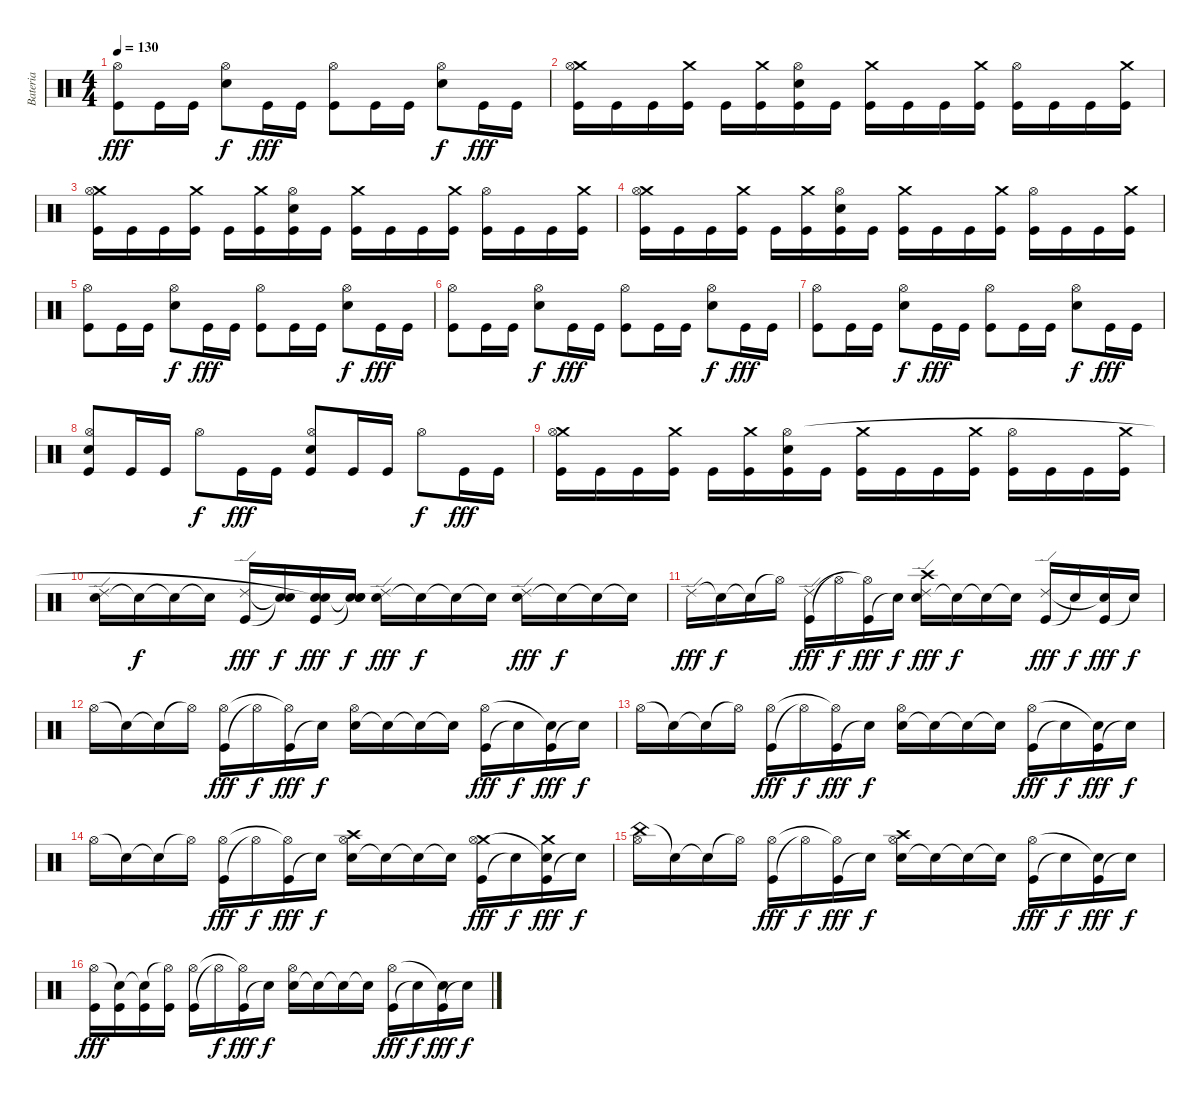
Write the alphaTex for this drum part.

\track ("Bateria" "Bateria") {instrument percussion}
\staff {score}
\articulation defaults
\ts (4 4)
\tempo 130
\clef neutral
\ks c
("Kick (hit)" "Hi-Hat (open)").8{dy fff} "Kick (hit)".16 "Kick (hit)".16 ("Electric Snare (hit)" "Hi-Hat (open)").8{dy f} "Kick (hit)".16{dy fff} "Kick (hit)".16 ("Kick (hit)" "Hi-Hat (open)").8 "Kick (hit)".16 "Kick (hit)".16 ("Electric Snare (hit)" "Hi-Hat (open)").8{dy f} "Kick (hit)".16{dy fff} "Kick (hit)".16 |
("Kick (hit)" "Crash medium (hit)" "Hi-Hat (open)").16 "Kick (hit)".16 "Kick (hit)".16 ("Kick (hit)" "Crash medium (hit)").16 "Kick (hit)".16 ("Kick (hit)" "Crash medium (hit)").16 ("Kick (hit)" "Electric Snare (hit)" "Hi-Hat (open)").16 "Kick (hit)".16 ("Kick (hit)" "Crash medium (hit)").16 "Kick (hit)".16 "Kick (hit)".16 ("Kick (hit)" "Crash medium (hit)").16 ("Kick (hit)" "Hi-Hat (open)").16 "Kick (hit)".16 "Kick (hit)".16 ("Kick (hit)" "Crash medium (hit)").16 |
("Kick (hit)" "Crash medium (hit)" "Hi-Hat (open)").16 "Kick (hit)".16 "Kick (hit)".16 ("Kick (hit)" "Crash medium (hit)").16 "Kick (hit)".16 ("Kick (hit)" "Crash medium (hit)").16 ("Kick (hit)" "Electric Snare (hit)" "Hi-Hat (open)").16 "Kick (hit)".16 ("Kick (hit)" "Crash medium (hit)").16 "Kick (hit)".16 "Kick (hit)".16 ("Kick (hit)" "Crash medium (hit)").16 ("Kick (hit)" "Hi-Hat (open)").16 "Kick (hit)".16 "Kick (hit)".16 ("Kick (hit)" "Crash medium (hit)").16 |
("Kick (hit)" "Crash medium (hit)" "Hi-Hat (open)").16 "Kick (hit)".16 "Kick (hit)".16 ("Kick (hit)" "Crash medium (hit)").16 "Kick (hit)".16 ("Kick (hit)" "Crash medium (hit)").16 ("Kick (hit)" "Electric Snare (hit)" "Hi-Hat (open)").16 "Kick (hit)".16 ("Kick (hit)" "Crash medium (hit)").16 "Kick (hit)".16 "Kick (hit)".16 ("Kick (hit)" "Crash medium (hit)").16 ("Kick (hit)" "Hi-Hat (open)").16 "Kick (hit)".16 "Kick (hit)".16 ("Kick (hit)" "Crash medium (hit)").16 |
("Kick (hit)" "Hi-Hat (open)").8 "Kick (hit)".16 "Kick (hit)".16 ("Electric Snare (hit)" "Hi-Hat (open)").8{dy f} "Kick (hit)".16{dy fff} "Kick (hit)".16 ("Kick (hit)" "Hi-Hat (open)").8 "Kick (hit)".16 "Kick (hit)".16 ("Electric Snare (hit)" "Hi-Hat (open)").8{dy f} "Kick (hit)".16{dy fff} "Kick (hit)".16 |
("Kick (hit)" "Hi-Hat (open)").8 "Kick (hit)".16 "Kick (hit)".16 ("Electric Snare (hit)" "Hi-Hat (open)").8{dy f} "Kick (hit)".16{dy fff} "Kick (hit)".16 ("Kick (hit)" "Hi-Hat (open)").8 "Kick (hit)".16 "Kick (hit)".16 ("Electric Snare (hit)" "Hi-Hat (open)").8{dy f} "Kick (hit)".16{dy fff} "Kick (hit)".16 |
("Kick (hit)" "Hi-Hat (open)").8 "Kick (hit)".16 "Kick (hit)".16 ("Electric Snare (hit)" "Hi-Hat (open)").8{dy f} "Kick (hit)".16{dy fff} "Kick (hit)".16 ("Kick (hit)" "Hi-Hat (open)").8 "Kick (hit)".16 "Kick (hit)".16 ("Electric Snare (hit)" "Hi-Hat (open)").8{dy f} "Kick (hit)".16{dy fff} "Kick (hit)".16 |
("Kick (hit)" "Electric Snare (hit)" "Hi-Hat (open)").8 "Kick (hit)".16 "Kick (hit)".16 "Hi-Hat (open)".8{dy f} "Kick (hit)".16{dy fff} "Kick (hit)".16 ("Kick (hit)" "Electric Snare (hit)" "Hi-Hat (open)").8 "Kick (hit)".16 "Kick (hit)".16 "Hi-Hat (open)".8{dy f} "Kick (hit)".16{dy fff} "Kick (hit)".16 |
("Kick (hit)" "Crash medium (hit)" "Hi-Hat (open)").16 "Kick (hit)".16 "Kick (hit)".16 ("Kick (hit)" "Crash medium (hit)").16 "Kick (hit)".16 ("Kick (hit)" "Crash medium (hit)").16 ("Kick (hit)" "Electric Snare (hit)" "Hi-Hat (open)").16 "Kick (hit)".16 ("Kick (hit)" "Crash medium (hit)").16 "Kick (hit)".16 "Kick (hit)".16 ("Kick (hit)" "Crash medium (hit)").16 ("Kick (hit)" "Hi-Hat (open)").16 "Kick (hit)".16 "Kick (hit)".16 ("Kick (hit)" "Crash medium (hit)").16 |
("Electric Snare (hit)" "Ride (edge) 2").16 "Snare (hit)"{t}.16{dy f} "Snare (hit)"{t}.16 "Snare (hit)"{t}.16 ("Kick (hit)" "Ride (edge) 2").16{dy fff} ("Snare (hit)"{t} "Snare (hit)"{t}).16{dy f} ("Kick (hit)" "Electric Snare (hit)" "Snare (hit)"{t}).16{dy fff} ("Snare (hit)"{t} "Electric Snare (hit)" "Snare (hit)"{t}).16{dy f} ("Electric Snare (hit)" "Ride (edge) 2").16{dy fff} "Snare (hit)"{t}.16{dy f} "Snare (hit)"{t}.16 "Snare (hit)"{t}.16 ("Electric Snare (hit)" "Ride (edge) 2").16{dy fff} "Snare (hit)"{t}.16{dy f} "Snare (hit)"{t}.16 "Snare (hit)"{t}.16 |
"Ride (edge) 2".16{dy fff} "Snare (hit)"{t}.16{dy f} "Snare (hit)"{t}.16 "Hi-Hat (open)"{t}.16 ("Kick (hit)" "Ride (edge) 2").16{dy fff} "Hi-Hat (open)"{t}.16{dy f} ("Kick (hit)" "Hi-Hat (open)"{t}).16{dy fff} "Snare (hit)"{t}.16{dy f} ("Electric Snare (hit)" "Crash high (hit)" "Ride (edge) 2").16{dy fff} "Snare (hit)"{t}.16{dy f} "Snare (hit)"{t}.16 "Snare (hit)"{t}.16 ("Kick (hit)" "Ride (edge) 2").16{dy fff} "Snare (hit)"{t}.16{dy f} ("Kick (hit)" "Snare (hit)"{t}).16{dy fff} "Snare (hit)"{t}.16{dy f} |
"Hi-Hat (open)".16 "Snare (hit)"{t}.16 "Snare (hit)"{t}.16 "Hi-Hat (open)"{t}.16 ("Kick (hit)" "Hi-Hat (open)").16{dy fff} "Hi-Hat (open)"{t}.16{dy f} ("Kick (hit)" "Hi-Hat (open)"{t}).16{dy fff} "Snare (hit)"{t}.16{dy f} ("Electric Snare (hit)" "Hi-Hat (open)").16 "Snare (hit)"{t}.16 "Snare (hit)"{t}.16 "Snare (hit)"{t}.16 ("Kick (hit)" "Hi-Hat (open)").16{dy fff} "Snare (hit)"{t}.16{dy f} ("Kick (hit)" "Snare (hit)"{t}).16{dy fff} "Snare (hit)"{t}.16{dy f} |
"Hi-Hat (open)".16 "Snare (hit)"{t}.16 "Snare (hit)"{t}.16 "Hi-Hat (open)"{t}.16 ("Kick (hit)" "Hi-Hat (open)").16{dy fff} "Hi-Hat (open)"{t}.16{dy f} ("Kick (hit)" "Hi-Hat (open)"{t}).16{dy fff} "Snare (hit)"{t}.16{dy f} ("Electric Snare (hit)" "Hi-Hat (open)").16 "Snare (hit)"{t}.16 "Snare (hit)"{t}.16 "Snare (hit)"{t}.16 ("Kick (hit)" "Hi-Hat (open)").16{dy fff} "Snare (hit)"{t}.16{dy f} ("Kick (hit)" "Snare (hit)"{t}).16{dy fff} "Snare (hit)"{t}.16{dy f} |
"Hi-Hat (open)".16 "Snare (hit)"{t}.16 "Snare (hit)"{t}.16 "Hi-Hat (open)"{t}.16 ("Kick (hit)" "Hi-Hat (open)").16{dy fff} "Hi-Hat (open)"{t}.16{dy f} ("Kick (hit)" "Hi-Hat (open)"{t}).16{dy fff} "Snare (hit)"{t}.16{dy f} ("Electric Snare (hit)" "Crash high (hit)" "Hi-Hat (open)").16 "Snare (hit)"{t}.16 "Snare (hit)"{t}.16 "Snare (hit)"{t}.16 ("Kick (hit)" "Crash medium (hit)" "Hi-Hat (open)").16{dy fff} "Snare (hit)"{t}.16{dy f} ("Kick (hit)" "Crash medium (hit)" "Snare (hit)"{t}).16{dy fff} "Snare (hit)"{t}.16{dy f} |
("China (hit)" "Hi-Hat (open)").16 "Snare (hit)"{t}.16 "Snare (hit)"{t}.16 "Hi-Hat (open)"{t}.16 ("Kick (hit)" "Hi-Hat (open)").16{dy fff} "Hi-Hat (open)"{t}.16{dy f} ("Kick (hit)" "Hi-Hat (open)"{t}).16{dy fff} "Snare (hit)"{t}.16{dy f} ("Electric Snare (hit)" "Crash high (hit)" "Hi-Hat (open)").16 "Snare (hit)"{t}.16 "Snare (hit)"{t}.16 "Snare (hit)"{t}.16 ("Kick (hit)" "Hi-Hat (open)").16{dy fff} "Snare (hit)"{t}.16{dy f} ("Kick (hit)" "Snare (hit)"{t}).16{dy fff} "Snare (hit)"{t}.16{dy f} |
("Kick (hit)" "Hi-Hat (open)").16{dy fff} ("Kick (hit)" "Snare (hit)"{t}).16 ("Kick (hit)" "Snare (hit)"{t}).16 ("Kick (hit)" "Hi-Hat (open)"{t}).16 ("Kick (hit)" "Hi-Hat (open)").16 "Hi-Hat (open)"{t}.16{dy f} ("Kick (hit)" "Hi-Hat (open)"{t}).16{dy fff} "Snare (hit)"{t}.16{dy f} ("Electric Snare (hit)" "Hi-Hat (open)").16 "Snare (hit)"{t}.16 "Snare (hit)"{t}.16 "Snare (hit)"{t}.16 ("Kick (hit)" "Hi-Hat (open)").16{dy fff} "Snare (hit)"{t}.16{dy f} ("Kick (hit)" "Snare (hit)"{t}).16{dy fff} "Snare (hit)"{t}.16{dy f}
